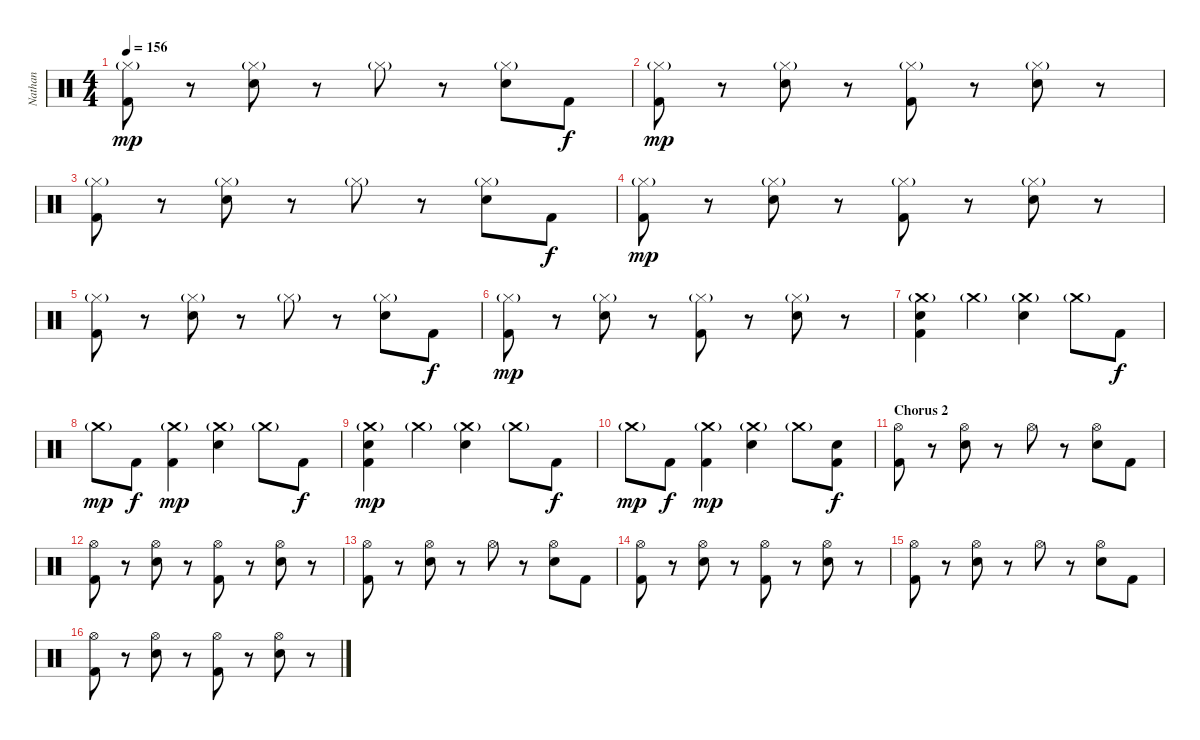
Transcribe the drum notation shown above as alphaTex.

\track ("Nathan" "Nathan") {instrument percussion}
\staff {score}
\articulation defaults
\ts (4 4)
\tempo 156
\clef neutral
\ks c
("Hi-Hat (closed)"{g} "Kick (hit) 2").8{dy mp} r.8 ("Hi-Hat (closed)"{g} "Electric Snare (hit)").8 r.8 "Hi-Hat (closed)"{g}.8 r.8 ("Hi-Hat (closed)"{g} "Electric Snare (hit)").8 "Kick (hit) 2".8{dy f} |
("Hi-Hat (closed)"{g} "Kick (hit) 2").8{dy mp} r.8 ("Hi-Hat (closed)"{g} "Electric Snare (hit)").8 r.8 ("Hi-Hat (closed)"{g} "Kick (hit) 2").8 r.8 ("Hi-Hat (closed)"{g} "Electric Snare (hit)").8 r.8 |
("Hi-Hat (closed)"{g} "Kick (hit) 2").8 r.8 ("Hi-Hat (closed)"{g} "Electric Snare (hit)").8 r.8 "Hi-Hat (closed)"{g}.8 r.8 ("Hi-Hat (closed)"{g} "Electric Snare (hit)").8 "Kick (hit) 2".8{dy f} |
("Hi-Hat (closed)"{g} "Kick (hit) 2").8{dy mp} r.8 ("Hi-Hat (closed)"{g} "Electric Snare (hit)").8 r.8 ("Hi-Hat (closed)"{g} "Kick (hit) 2").8 r.8 ("Hi-Hat (closed)"{g} "Electric Snare (hit)").8 r.8 |
("Hi-Hat (closed)"{g} "Kick (hit) 2").8 r.8 ("Hi-Hat (closed)"{g} "Electric Snare (hit)").8 r.8 "Hi-Hat (closed)"{g}.8 r.8 ("Hi-Hat (closed)"{g} "Electric Snare (hit)").8 "Kick (hit) 2".8{dy f} |
("Hi-Hat (closed)"{g} "Kick (hit) 2").8{dy mp} r.8 ("Hi-Hat (closed)"{g} "Electric Snare (hit)").8 r.8 ("Hi-Hat (closed)"{g} "Kick (hit) 2").8 r.8 ("Hi-Hat (closed)"{g} "Electric Snare (hit)").8 r.8 |
("Crash medium (hit)"{g} "Electric Snare (hit)" "Kick (hit) 2").4 "Crash medium (hit)"{g}.4 ("Crash medium (hit)"{g} "Electric Snare (hit)").4 "Crash medium (hit)"{g}.8 "Kick (hit) 2".8{dy f} |
"Crash medium (hit)"{g}.8{dy mp} "Kick (hit) 2".8{dy f} ("Crash medium (hit)"{g} "Kick (hit) 2").4{dy mp} ("Crash medium (hit)"{g} "Electric Snare (hit)").4 "Crash medium (hit)"{g}.8 "Kick (hit) 2".8{dy f} |
("Crash medium (hit)"{g} "Electric Snare (hit)" "Kick (hit) 2").4{dy mp} "Crash medium (hit)"{g}.4 ("Crash medium (hit)"{g} "Electric Snare (hit)").4 "Crash medium (hit)"{g}.8 "Kick (hit) 2".8{dy f} |
"Crash medium (hit)"{g}.8{dy mp} "Kick (hit) 2".8{dy f} ("Crash medium (hit)"{g} "Kick (hit) 2").4{dy mp} ("Crash medium (hit)"{g} "Electric Snare (hit)").4 "Crash medium (hit)"{g}.8 ("Electric Snare (hit)" "Kick (hit) 2").8{dy f} |
\section ("" "Chorus 2")
("Hi-Hat (open)" "Kick (hit) 2").8 r.8 ("Hi-Hat (open)" "Electric Snare (hit)").8 r.8 "Hi-Hat (open)".8 r.8 ("Hi-Hat (open)" "Electric Snare (hit)").8 "Kick (hit) 2".8 |
("Hi-Hat (open)" "Kick (hit) 2").8 r.8 ("Hi-Hat (open)" "Electric Snare (hit)").8 r.8 ("Hi-Hat (open)" "Kick (hit) 2").8 r.8 ("Hi-Hat (open)" "Electric Snare (hit)").8 r.8 |
("Hi-Hat (open)" "Kick (hit) 2").8 r.8 ("Hi-Hat (open)" "Electric Snare (hit)").8 r.8 "Hi-Hat (open)".8 r.8 ("Hi-Hat (open)" "Electric Snare (hit)").8 "Kick (hit) 2".8 |
("Hi-Hat (open)" "Kick (hit) 2").8 r.8 ("Hi-Hat (open)" "Electric Snare (hit)").8 r.8 ("Hi-Hat (open)" "Kick (hit) 2").8 r.8 ("Hi-Hat (open)" "Electric Snare (hit)").8 r.8 |
("Hi-Hat (open)" "Kick (hit) 2").8 r.8 ("Hi-Hat (open)" "Electric Snare (hit)").8 r.8 "Hi-Hat (open)".8 r.8 ("Hi-Hat (open)" "Electric Snare (hit)").8 "Kick (hit) 2".8 |
("Hi-Hat (open)" "Kick (hit) 2").8 r.8 ("Hi-Hat (open)" "Electric Snare (hit)").8 r.8 ("Hi-Hat (open)" "Kick (hit) 2").8 r.8 ("Hi-Hat (open)" "Electric Snare (hit)").8 r.8
